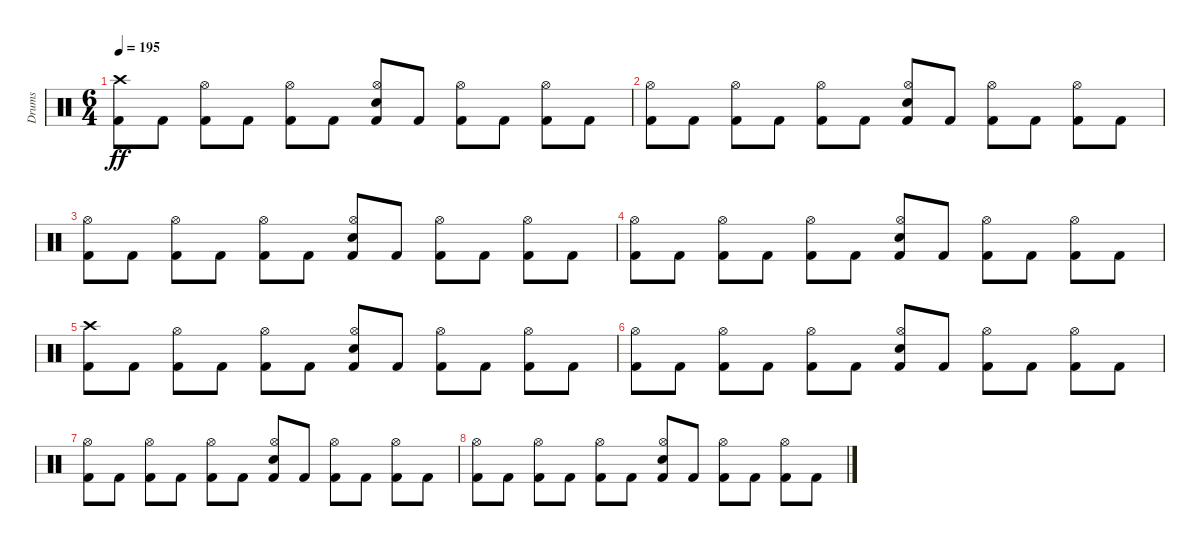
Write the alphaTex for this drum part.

\track ("Drums" "Drums") {instrument percussion}
\staff {score}
\articulation defaults
\ts (6 4)
\tempo 195
\clef neutral
\ks c
("Crash high (hit)" "Kick (hit) 2").8{dy ff} "Kick (hit) 2".8 ("Hi-Hat (open)" "Kick (hit) 2").8 "Kick (hit) 2".8 ("Hi-Hat (open)" "Kick (hit) 2").8 "Kick (hit) 2".8 ("Hi-Hat (open)" "Electric Snare (hit)" "Kick (hit) 2").8 "Kick (hit) 2".8 ("Hi-Hat (open)" "Kick (hit) 2").8 "Kick (hit) 2".8 ("Hi-Hat (open)" "Kick (hit) 2").8 "Kick (hit) 2".8 |
("Hi-Hat (open)" "Kick (hit) 2").8 "Kick (hit) 2".8 ("Hi-Hat (open)" "Kick (hit) 2").8 "Kick (hit) 2".8 ("Hi-Hat (open)" "Kick (hit) 2").8 "Kick (hit) 2".8 ("Hi-Hat (open)" "Electric Snare (hit)" "Kick (hit) 2").8 "Kick (hit) 2".8 ("Hi-Hat (open)" "Kick (hit) 2").8 "Kick (hit) 2".8 ("Hi-Hat (open)" "Kick (hit) 2").8 "Kick (hit) 2".8 |
("Hi-Hat (open)" "Kick (hit) 2").8 "Kick (hit) 2".8 ("Hi-Hat (open)" "Kick (hit) 2").8 "Kick (hit) 2".8 ("Hi-Hat (open)" "Kick (hit) 2").8 "Kick (hit) 2".8 ("Hi-Hat (open)" "Electric Snare (hit)" "Kick (hit) 2").8 "Kick (hit) 2".8 ("Hi-Hat (open)" "Kick (hit) 2").8 "Kick (hit) 2".8 ("Hi-Hat (open)" "Kick (hit) 2").8 "Kick (hit) 2".8 |
("Hi-Hat (open)" "Kick (hit) 2").8 "Kick (hit) 2".8 ("Hi-Hat (open)" "Kick (hit) 2").8 "Kick (hit) 2".8 ("Hi-Hat (open)" "Kick (hit) 2").8 "Kick (hit) 2".8 ("Hi-Hat (open)" "Electric Snare (hit)" "Kick (hit) 2").8 "Kick (hit) 2".8 ("Hi-Hat (open)" "Kick (hit) 2").8 "Kick (hit) 2".8 ("Hi-Hat (open)" "Kick (hit) 2").8 "Kick (hit) 2".8 |
("Crash high (hit)" "Kick (hit) 2").8 "Kick (hit) 2".8 ("Hi-Hat (open)" "Kick (hit) 2").8 "Kick (hit) 2".8 ("Hi-Hat (open)" "Kick (hit) 2").8 "Kick (hit) 2".8 ("Hi-Hat (open)" "Electric Snare (hit)" "Kick (hit) 2").8 "Kick (hit) 2".8 ("Hi-Hat (open)" "Kick (hit) 2").8 "Kick (hit) 2".8 ("Hi-Hat (open)" "Kick (hit) 2").8 "Kick (hit) 2".8 |
("Hi-Hat (open)" "Kick (hit) 2").8 "Kick (hit) 2".8 ("Hi-Hat (open)" "Kick (hit) 2").8 "Kick (hit) 2".8 ("Hi-Hat (open)" "Kick (hit) 2").8 "Kick (hit) 2".8 ("Hi-Hat (open)" "Electric Snare (hit)" "Kick (hit) 2").8 "Kick (hit) 2".8 ("Hi-Hat (open)" "Kick (hit) 2").8 "Kick (hit) 2".8 ("Hi-Hat (open)" "Kick (hit) 2").8 "Kick (hit) 2".8 |
("Hi-Hat (open)" "Kick (hit) 2").8 "Kick (hit) 2".8 ("Hi-Hat (open)" "Kick (hit) 2").8 "Kick (hit) 2".8 ("Hi-Hat (open)" "Kick (hit) 2").8 "Kick (hit) 2".8 ("Hi-Hat (open)" "Electric Snare (hit)" "Kick (hit) 2").8 "Kick (hit) 2".8 ("Hi-Hat (open)" "Kick (hit) 2").8 "Kick (hit) 2".8 ("Hi-Hat (open)" "Kick (hit) 2").8 "Kick (hit) 2".8 |
("Hi-Hat (open)" "Kick (hit) 2").8 "Kick (hit) 2".8 ("Hi-Hat (open)" "Kick (hit) 2").8 "Kick (hit) 2".8 ("Hi-Hat (open)" "Kick (hit) 2").8 "Kick (hit) 2".8 ("Hi-Hat (open)" "Electric Snare (hit)" "Kick (hit) 2").8 "Kick (hit) 2".8 ("Hi-Hat (open)" "Kick (hit) 2").8 "Kick (hit) 2".8 ("Hi-Hat (open)" "Kick (hit) 2").8 "Kick (hit) 2".8
